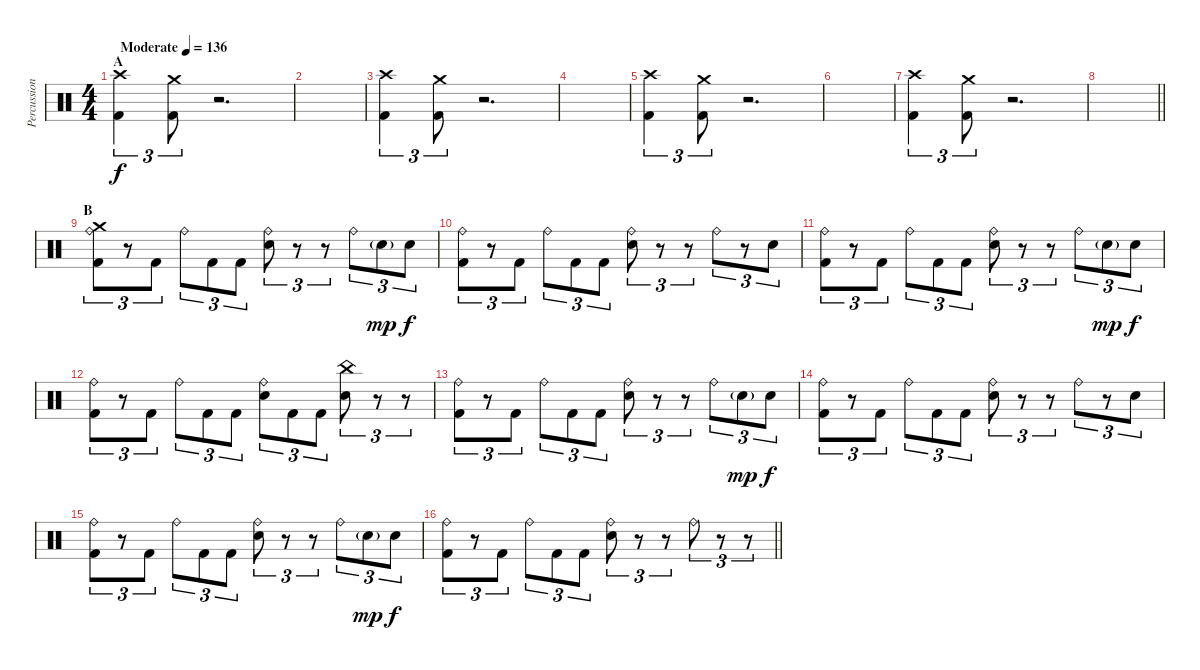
\track ("Percussion" "Percussion") {instrument percussion}
\staff {score}
\articulation defaults
\ts (4 4)
\section ("" "A")
\tempo (136 "Moderate")
\clef neutral
\ks c
("Crash high (hit)" "Kick (hit) 2").4{tu (3 2) dy f} ("Crash medium (hit)" "Kick (hit) 2").8{tu (3 2)} r.2{d} |
|
("Crash high (hit)" "Kick (hit) 2").4{tu (3 2)} ("Crash medium (hit)" "Kick (hit) 2").8{tu (3 2)} r.2{d} |
|
("Crash high (hit)" "Kick (hit) 2").4{tu (3 2)} ("Crash medium (hit)" "Kick (hit) 2").8{tu (3 2)} r.2{d} |
|
("Crash high (hit)" "Kick (hit) 2").4{tu (3 2)} ("Crash medium (hit)" "Kick (hit) 2").8{tu (3 2)} r.2{d} |
\barLineRight lightlight
|
\section ("" "B")
("Crash medium (hit)" "Ride (bell)" "Kick (hit) 2").8{tu (3 2)} r.8{tu (3 2)} "Kick (hit) 2".8{tu (3 2)} "Ride (bell)".8{tu (3 2)} "Kick (hit) 2".8{tu (3 2)} "Kick (hit) 2".8{tu (3 2)} ("Ride (bell)" "Electric Snare (hit)").8{tu (3 2)} r.8{tu (3 2)} r.8{tu (3 2)} "Ride (bell)".8{tu (3 2)} "Electric Snare (hit)"{g}.8{tu (3 2) dy mp} "Electric Snare (hit)".8{tu (3 2) dy f} |
("Ride (bell)" "Kick (hit) 2").8{tu (3 2)} r.8{tu (3 2)} "Kick (hit) 2".8{tu (3 2)} "Ride (bell)".8{tu (3 2)} "Kick (hit) 2".8{tu (3 2)} "Kick (hit) 2".8{tu (3 2)} ("Ride (bell)" "Electric Snare (hit)").8{tu (3 2)} r.8{tu (3 2)} r.8{tu (3 2)} "Ride (bell)".8{tu (3 2)} r.8{tu (3 2)} "Electric Snare (hit)".8{tu (3 2)} |
("Ride (bell)" "Kick (hit) 2").8{tu (3 2)} r.8{tu (3 2)} "Kick (hit) 2".8{tu (3 2)} "Ride (bell)".8{tu (3 2)} "Kick (hit) 2".8{tu (3 2)} "Kick (hit) 2".8{tu (3 2)} ("Ride (bell)" "Electric Snare (hit)").8{tu (3 2)} r.8{tu (3 2)} r.8{tu (3 2)} "Ride (bell)".8{tu (3 2)} "Electric Snare (hit)"{g}.8{tu (3 2) dy mp} "Electric Snare (hit)".8{tu (3 2) dy f} |
("Ride (bell)" "Kick (hit) 2").8{tu (3 2)} r.8{tu (3 2)} "Kick (hit) 2".8{tu (3 2)} "Ride (bell)".8{tu (3 2)} "Kick (hit) 2".8{tu (3 2)} "Kick (hit) 2".8{tu (3 2)} ("Ride (bell)" "Electric Snare (hit)").8{tu (3 2)} "Kick (hit) 2".8{tu (3 2)} "Kick (hit) 2".8{tu (3 2)} ("China (hit)" "Electric Snare (hit)").8{tu (3 2)} r.8{tu (3 2)} r.8{tu (3 2)} |
("Ride (bell)" "Kick (hit) 2").8{tu (3 2)} r.8{tu (3 2)} "Kick (hit) 2".8{tu (3 2)} "Ride (bell)".8{tu (3 2)} "Kick (hit) 2".8{tu (3 2)} "Kick (hit) 2".8{tu (3 2)} ("Ride (bell)" "Electric Snare (hit)").8{tu (3 2)} r.8{tu (3 2)} r.8{tu (3 2)} "Ride (bell)".8{tu (3 2)} "Electric Snare (hit)"{g}.8{tu (3 2) dy mp} "Electric Snare (hit)".8{tu (3 2) dy f} |
("Ride (bell)" "Kick (hit) 2").8{tu (3 2)} r.8{tu (3 2)} "Kick (hit) 2".8{tu (3 2)} "Ride (bell)".8{tu (3 2)} "Kick (hit) 2".8{tu (3 2)} "Kick (hit) 2".8{tu (3 2)} ("Ride (bell)" "Electric Snare (hit)").8{tu (3 2)} r.8{tu (3 2)} r.8{tu (3 2)} "Ride (bell)".8{tu (3 2)} r.8{tu (3 2)} "Electric Snare (hit)".8{tu (3 2)} |
("Ride (bell)" "Kick (hit) 2").8{tu (3 2)} r.8{tu (3 2)} "Kick (hit) 2".8{tu (3 2)} "Ride (bell)".8{tu (3 2)} "Kick (hit) 2".8{tu (3 2)} "Kick (hit) 2".8{tu (3 2)} ("Ride (bell)" "Electric Snare (hit)").8{tu (3 2)} r.8{tu (3 2)} r.8{tu (3 2)} "Ride (bell)".8{tu (3 2)} "Electric Snare (hit)"{g}.8{tu (3 2) dy mp} "Electric Snare (hit)".8{tu (3 2) dy f} |
\barLineRight lightlight
("Ride (bell)" "Kick (hit) 2").8{tu (3 2)} r.8{tu (3 2)} "Kick (hit) 2".8{tu (3 2)} "Ride (bell)".8{tu (3 2)} "Kick (hit) 2".8{tu (3 2)} "Kick (hit) 2".8{tu (3 2)} ("Ride (bell)" "Electric Snare (hit)").8{tu (3 2)} r.8{tu (3 2)} r.8{tu (3 2)} "Ride (bell)".8{tu (3 2)} r.8{tu (3 2)} r.8{tu (3 2)}
